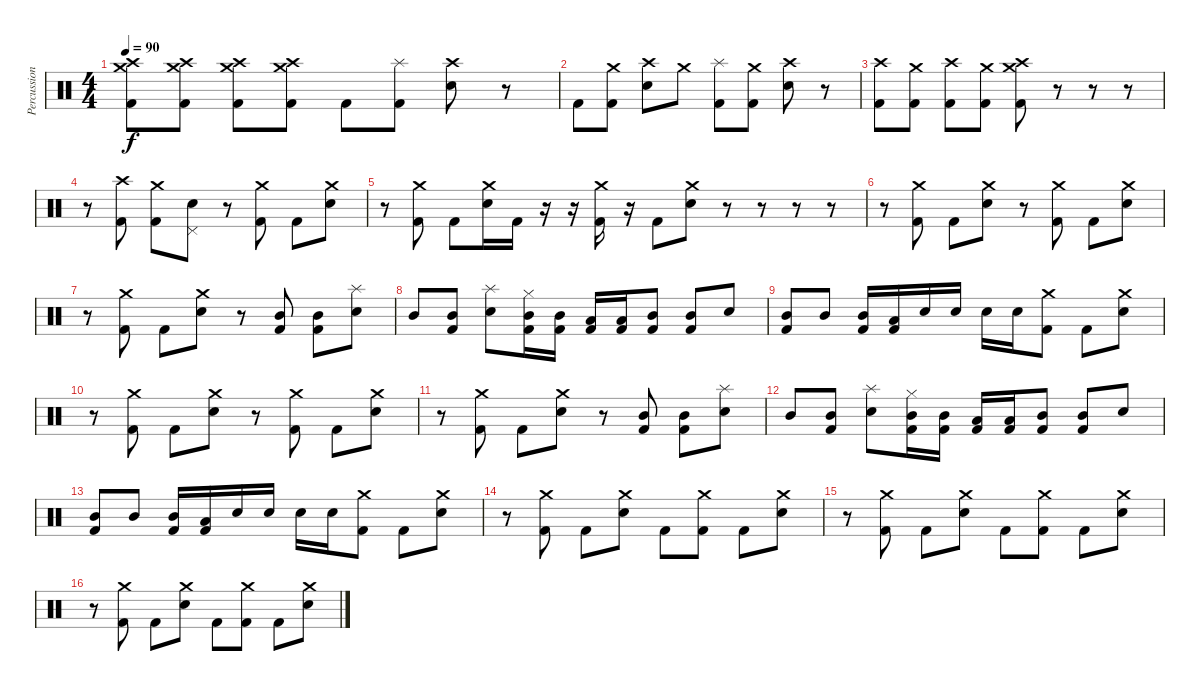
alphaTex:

\track ("Percussion" "Percussion") {instrument percussion}
\staff {score}
\articulation defaults
\ts (4 4)
\tempo 90
\clef neutral
\ks c
("Kick (hit) 2" "Crash medium (hit)" "Crash high (hit)").8{dy f} ("Kick (hit) 2" "Crash medium (hit)" "Crash high (hit)").8 ("Kick (hit) 2" "Crash medium (hit)" "Crash high (hit)").8 ("Kick (hit) 2" "Crash medium (hit)" "Crash high (hit)").8 "Kick (hit) 2".8 ("Kick (hit) 2" "Splash (hit)").8 ("Snare (hit) 2" "Crash high (hit)").8 r.8 |
"Kick (hit) 2".8 ("Kick (hit) 2" "Crash medium (hit)").8 ("Snare (hit) 2" "Crash high (hit)").8 "Crash medium (hit)".8 ("Kick (hit) 2" "Splash (hit)").8 ("Kick (hit) 2" "Crash medium (hit)").8 ("Snare (hit) 2" "Crash high (hit)").8 r.8 |
("Kick (hit) 2" "Crash high (hit)").8 ("Kick (hit) 2" "Crash medium (hit)").8 ("Kick (hit) 2" "Crash high (hit)").8 ("Kick (hit) 2" "Crash medium (hit)").8 ("Kick (hit) 2" "Crash medium (hit)" "Crash high (hit)").8 r.8 r.8 r.8 |
r.8 ("Kick (hit) 2" "Crash high (hit)").8 ("Kick (hit) 2" "Crash medium (hit)").8 ("Snare (hit) 2" "Pedal Hi-Hat (hit)").8 r.8 ("Kick (hit) 2" "Crash medium (hit)").8 "Kick (hit) 2".8 ("Snare (hit) 2" "Crash medium (hit)").8 |
r.8 ("Kick (hit) 2" "Crash medium (hit)").8 "Kick (hit) 2".8 ("Snare (hit) 2" "Crash medium (hit)").16 "Kick (hit) 2".16 r.16 r.16 ("Kick (hit) 2" "Crash medium (hit)").16 r.16 "Kick (hit) 2".8 ("Snare (hit) 2" "Crash medium (hit)").8 r.8 r.8 r.8 r.8 |
r.8 ("Kick (hit) 2" "Crash medium (hit)").8 "Kick (hit) 2".8 ("Snare (hit) 2" "Crash medium (hit)").8 r.8 ("Kick (hit) 2" "Crash medium (hit)").8 "Kick (hit) 2".8 ("Snare (hit) 2" "Crash medium (hit)").8 |
r.8 ("Kick (hit) 2" "Crash medium (hit)").8 "Kick (hit) 2".8 ("Snare (hit) 2" "Crash medium (hit)").8 r.8 ("Kick (hit) 2" "Mid Tom (hit)").8 ("Kick (hit) 2" "Mid Tom (hit)").8 ("Snare (hit) 2" "Splash (hit)").8 |
"Mid Tom (hit)".8 ("Kick (hit) 2" "Mid Tom (hit)").8 ("Snare (hit) 2" "Splash (hit)").8 ("Kick (hit) 2" "Mid Tom (hit)" "Hi-Hat (closed)").16 ("Kick (hit) 2" "Mid Tom (hit)").16 ("Kick (hit) 2" "Low Tom (hit)").16 ("Kick (hit) 2" "Low Tom (hit)").16 ("Kick (hit) 2" "Mid Tom (hit)").8 ("Kick (hit) 2" "Mid Tom (hit)").8 "Snare (hit) 2".8 |
("Kick (hit) 2" "Mid Tom (hit)").8 "Mid Tom (hit)".8 ("Kick (hit) 2" "Mid Tom (hit)").16 ("Kick (hit) 2" "Low Tom (hit)").16 "Snare (hit) 2".16 "Snare (hit) 2".16 "Snare (hit) 2".16 "Snare (hit) 2".16 ("Kick (hit) 2" "Crash medium (hit)").8 "Kick (hit) 2".8 ("Snare (hit) 2" "Crash medium (hit)").8 |
r.8 ("Kick (hit) 2" "Crash medium (hit)").8 "Kick (hit) 2".8 ("Snare (hit) 2" "Crash medium (hit)").8 r.8 ("Kick (hit) 2" "Crash medium (hit)").8 "Kick (hit) 2".8 ("Snare (hit) 2" "Crash medium (hit)").8 |
r.8 ("Kick (hit) 2" "Crash medium (hit)").8 "Kick (hit) 2".8 ("Snare (hit) 2" "Crash medium (hit)").8 r.8 ("Kick (hit) 2" "Mid Tom (hit)").8 ("Kick (hit) 2" "Mid Tom (hit)").8 ("Snare (hit) 2" "Splash (hit)").8 |
"Mid Tom (hit)".8 ("Kick (hit) 2" "Mid Tom (hit)").8 ("Snare (hit) 2" "Splash (hit)").8 ("Kick (hit) 2" "Mid Tom (hit)" "Hi-Hat (closed)").16 ("Kick (hit) 2" "Mid Tom (hit)").16 ("Kick (hit) 2" "Low Tom (hit)").16 ("Kick (hit) 2" "Low Tom (hit)").16 ("Kick (hit) 2" "Mid Tom (hit)").8 ("Kick (hit) 2" "Mid Tom (hit)").8 "Snare (hit) 2".8 |
("Kick (hit) 2" "Mid Tom (hit)").8 "Mid Tom (hit)".8 ("Kick (hit) 2" "Mid Tom (hit)").16 ("Kick (hit) 2" "Low Tom (hit)").16 "Snare (hit) 2".16 "Snare (hit) 2".16 "Snare (hit) 2".16 "Snare (hit) 2".16 ("Kick (hit) 2" "Crash medium (hit)").8 "Kick (hit) 2".8 ("Snare (hit) 2" "Crash medium (hit)").8 |
r.8 ("Kick (hit) 2" "Crash medium (hit)").8 "Kick (hit) 2".8 ("Snare (hit) 2" "Crash medium (hit)").8 "Kick (hit) 2".8 ("Kick (hit) 2" "Crash medium (hit)").8 "Kick (hit) 2".8 ("Snare (hit) 2" "Crash medium (hit)").8 |
r.8 ("Kick (hit) 2" "Crash medium (hit)").8 "Kick (hit) 2".8 ("Snare (hit) 2" "Crash medium (hit)").8 "Kick (hit) 2".8 ("Kick (hit) 2" "Crash medium (hit)").8 "Kick (hit) 2".8 ("Snare (hit) 2" "Crash medium (hit)").8 |
r.8 ("Kick (hit) 2" "Crash medium (hit)").8 "Kick (hit) 2".8 ("Snare (hit) 2" "Crash medium (hit)").8 "Kick (hit) 2".8 ("Kick (hit) 2" "Crash medium (hit)").8 "Kick (hit) 2".8 ("Snare (hit) 2" "Crash medium (hit)").8
